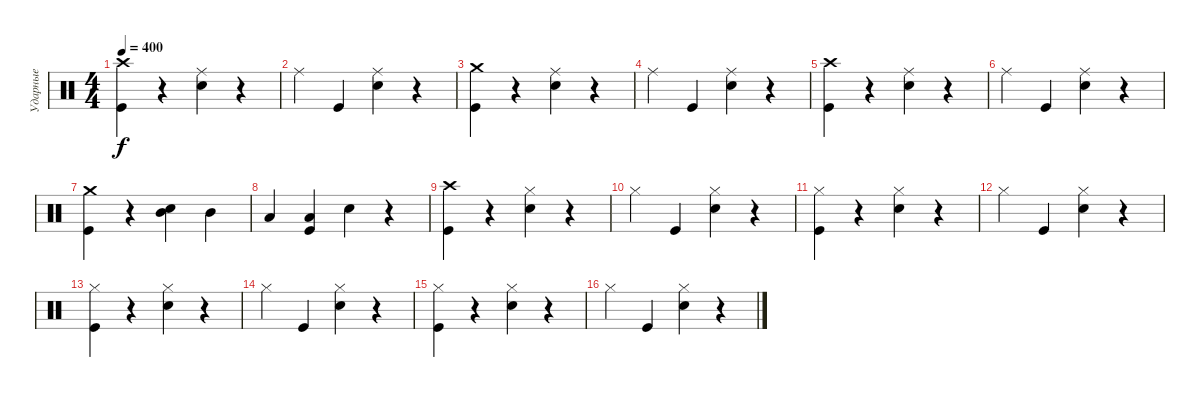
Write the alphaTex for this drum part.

\track ("Ударные" "Ударные") {instrument percussion}
\staff {score}
\articulation defaults
\ts (4 4)
\tempo 400
\clef neutral
\ks c
("Kick (hit)" "Crash high (hit)").4{dy f} r.4 ("Snare (hit) 2" "Ride (middle)").4 r.4 |
"Ride (middle)".4 "Kick (hit)".4 ("Snare (hit) 2" "Ride (middle)").4 r.4 |
("Kick (hit)" "Crash medium (hit)").4 r.4 ("Snare (hit) 2" "Ride (middle)").4 r.4 |
"Ride (middle)".4 "Kick (hit)".4 ("Snare (hit) 2" "Ride (middle)").4 r.4 |
("Kick (hit)" "Crash high (hit)").4 r.4 ("Snare (hit) 2" "Ride (middle)").4 r.4 |
"Ride (middle)".4 "Kick (hit)".4 ("Snare (hit) 2" "Ride (middle)").4 r.4 |
("Kick (hit)" "Crash medium (hit)").4 r.4 ("Snare (hit) 2" "Mid Tom (hit)").4 "Mid Tom (hit)".4 |
"Low Tom (hit)".4 ("Kick (hit)" "Low Tom (hit)").4 "Snare (hit) 2".4 r.4 |
("Kick (hit)" "Crash high (hit)").4 r.4 ("Snare (hit) 2" "Hi-Hat (closed)").4 r.4 |
"Hi-Hat (closed)".4 "Kick (hit)".4 ("Snare (hit) 2" "Hi-Hat (closed)").4 r.4 |
("Kick (hit)" "Hi-Hat (closed)").4 r.4 ("Snare (hit) 2" "Hi-Hat (closed)").4 r.4 |
"Hi-Hat (closed)".4 "Kick (hit)".4 ("Snare (hit) 2" "Hi-Hat (closed)").4 r.4 |
("Kick (hit)" "Hi-Hat (closed)").4 r.4 ("Snare (hit) 2" "Hi-Hat (closed)").4 r.4 |
"Hi-Hat (closed)".4 "Kick (hit)".4 ("Snare (hit) 2" "Hi-Hat (closed)").4 r.4 |
("Kick (hit)" "Hi-Hat (closed)").4 r.4 ("Snare (hit) 2" "Hi-Hat (closed)").4 r.4 |
"Hi-Hat (closed)".4 "Kick (hit)".4 ("Snare (hit) 2" "Hi-Hat (closed)").4 r.4
